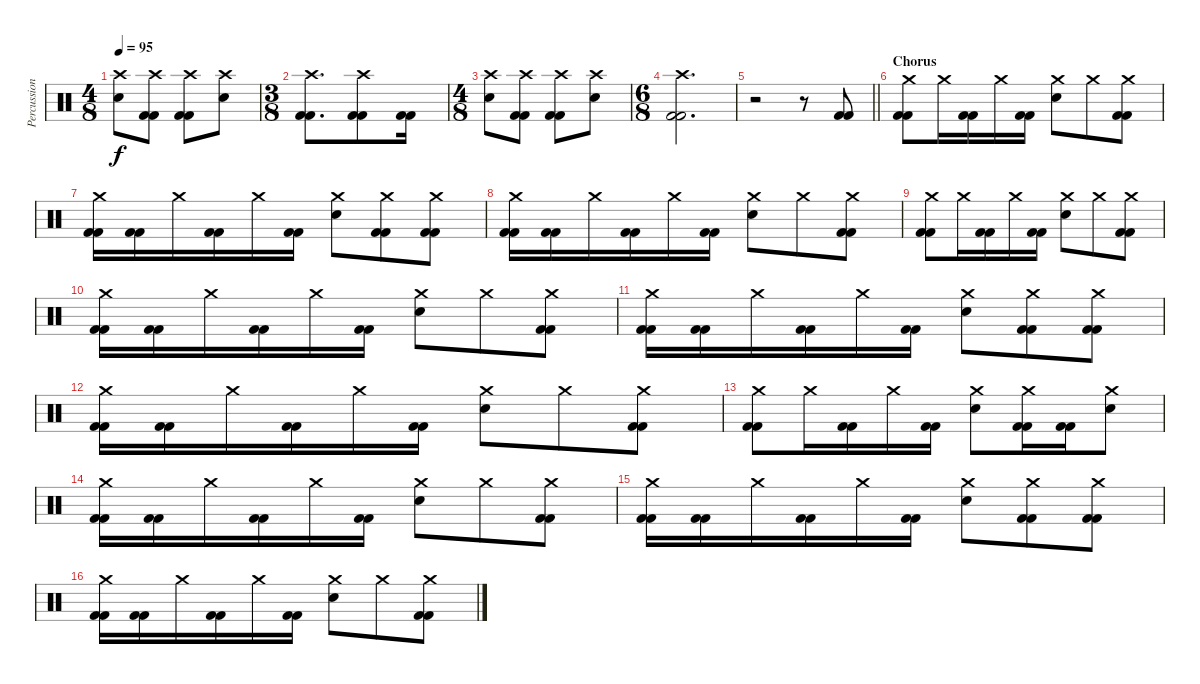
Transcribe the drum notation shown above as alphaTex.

\track ("Percussion" "Percussion") {instrument percussion}
\staff {score}
\articulation defaults
\ts (4 8)
\tempo 95
\clef neutral
\ks c
("Crash high (hit)" "Electric Snare (hit)").8{dy f} ("Crash high (hit)" "Kick (hit) 2" "Kick (hit) 2").8 ("Crash high (hit)" "Kick (hit) 2" "Kick (hit) 2").8 ("Crash high (hit)" "Electric Snare (hit)").8 |
\ts (3 8)
("Crash high (hit)" "Kick (hit) 2" "Kick (hit) 2").8{d} ("Crash high (hit)" "Kick (hit) 2" "Kick (hit) 2").8 ("Kick (hit) 2" "Kick (hit) 2").16 |
\ts (4 8)
("Crash high (hit)" "Electric Snare (hit)").8 ("Crash high (hit)" "Kick (hit) 2" "Kick (hit) 2").8 ("Crash high (hit)" "Kick (hit) 2" "Kick (hit) 2").8 ("Crash high (hit)" "Electric Snare (hit)").8 |
\ts (6 8)
("Crash high (hit)" "Kick (hit) 2" "Kick (hit) 2").2{d} |
\barLineRight lightlight
r.2 r.8 ("Kick (hit) 2" "Kick (hit) 2").8 |
\section ("" "Chorus")
("Crash medium (hit)" "Kick (hit) 2" "Kick (hit) 2").8 "Crash medium (hit)".16 ("Kick (hit) 2" "Kick (hit) 2").16 "Crash medium (hit)".16 ("Kick (hit) 2" "Kick (hit) 2").16 ("Crash medium (hit)" "Electric Snare (hit)").8 "Crash medium (hit)".8 ("Crash medium (hit)" "Kick (hit) 2" "Kick (hit) 2").8 |
("Crash medium (hit)" "Kick (hit) 2" "Kick (hit) 2").16 ("Kick (hit) 2" "Kick (hit) 2").16 "Crash medium (hit)".16 ("Kick (hit) 2" "Kick (hit) 2").16 "Crash medium (hit)".16 ("Kick (hit) 2" "Kick (hit) 2").16 ("Crash medium (hit)" "Electric Snare (hit)").8 ("Crash medium (hit)" "Kick (hit) 2" "Kick (hit) 2").8 ("Crash medium (hit)" "Kick (hit) 2" "Kick (hit) 2").8 |
("Crash medium (hit)" "Kick (hit) 2" "Kick (hit) 2").16 ("Kick (hit) 2" "Kick (hit) 2").16 "Crash medium (hit)".16 ("Kick (hit) 2" "Kick (hit) 2").16 "Crash medium (hit)".16 ("Kick (hit) 2" "Kick (hit) 2").16 ("Crash medium (hit)" "Electric Snare (hit)").8 "Crash medium (hit)".8 ("Crash medium (hit)" "Kick (hit) 2" "Kick (hit) 2").8 |
("Crash medium (hit)" "Kick (hit) 2" "Kick (hit) 2").8 "Crash medium (hit)".16 ("Kick (hit) 2" "Kick (hit) 2").16 "Crash medium (hit)".16 ("Kick (hit) 2" "Kick (hit) 2").16 ("Crash medium (hit)" "Electric Snare (hit)").8 "Crash medium (hit)".8 ("Crash medium (hit)" "Kick (hit) 2" "Kick (hit) 2").8 |
("Crash medium (hit)" "Kick (hit) 2" "Kick (hit) 2").16 ("Kick (hit) 2" "Kick (hit) 2").16 "Crash medium (hit)".16 ("Kick (hit) 2" "Kick (hit) 2").16 "Crash medium (hit)".16 ("Kick (hit) 2" "Kick (hit) 2").16 ("Crash medium (hit)" "Electric Snare (hit)").8 "Crash medium (hit)".8 ("Crash medium (hit)" "Kick (hit) 2" "Kick (hit) 2").8 |
("Crash medium (hit)" "Kick (hit) 2" "Kick (hit) 2").16 ("Kick (hit) 2" "Kick (hit) 2").16 "Crash medium (hit)".16 ("Kick (hit) 2" "Kick (hit) 2").16 "Crash medium (hit)".16 ("Kick (hit) 2" "Kick (hit) 2").16 ("Crash medium (hit)" "Electric Snare (hit)").8 ("Crash medium (hit)" "Kick (hit) 2" "Kick (hit) 2").8 ("Crash medium (hit)" "Kick (hit) 2" "Kick (hit) 2").8 |
("Crash medium (hit)" "Kick (hit) 2" "Kick (hit) 2").16 ("Kick (hit) 2" "Kick (hit) 2").16 "Crash medium (hit)".16 ("Kick (hit) 2" "Kick (hit) 2").16 "Crash medium (hit)".16 ("Kick (hit) 2" "Kick (hit) 2").16 ("Crash medium (hit)" "Electric Snare (hit)").8 "Crash medium (hit)".8 ("Crash medium (hit)" "Kick (hit) 2" "Kick (hit) 2").8 |
("Crash medium (hit)" "Kick (hit) 2" "Kick (hit) 2").8 "Crash medium (hit)".16 ("Kick (hit) 2" "Kick (hit) 2").16 "Crash medium (hit)".16 ("Kick (hit) 2" "Kick (hit) 2").16 ("Crash medium (hit)" "Electric Snare (hit)").8 ("Crash medium (hit)" "Kick (hit) 2" "Kick (hit) 2").16 ("Kick (hit) 2" "Kick (hit) 2").16 ("Crash medium (hit)" "Electric Snare (hit)").8 |
("Crash medium (hit)" "Kick (hit) 2" "Kick (hit) 2").16 ("Kick (hit) 2" "Kick (hit) 2").16 "Crash medium (hit)".16 ("Kick (hit) 2" "Kick (hit) 2").16 "Crash medium (hit)".16 ("Kick (hit) 2" "Kick (hit) 2").16 ("Crash medium (hit)" "Electric Snare (hit)").8 "Crash medium (hit)".8 ("Crash medium (hit)" "Kick (hit) 2" "Kick (hit) 2").8 |
("Crash medium (hit)" "Kick (hit) 2" "Kick (hit) 2").16 ("Kick (hit) 2" "Kick (hit) 2").16 "Crash medium (hit)".16 ("Kick (hit) 2" "Kick (hit) 2").16 "Crash medium (hit)".16 ("Kick (hit) 2" "Kick (hit) 2").16 ("Crash medium (hit)" "Electric Snare (hit)").8 ("Crash medium (hit)" "Kick (hit) 2" "Kick (hit) 2").8 ("Crash medium (hit)" "Kick (hit) 2" "Kick (hit) 2").8 |
("Crash medium (hit)" "Kick (hit) 2" "Kick (hit) 2").16 ("Kick (hit) 2" "Kick (hit) 2").16 "Crash medium (hit)".16 ("Kick (hit) 2" "Kick (hit) 2").16 "Crash medium (hit)".16 ("Kick (hit) 2" "Kick (hit) 2").16 ("Crash medium (hit)" "Electric Snare (hit)").8 "Crash medium (hit)".8 ("Crash medium (hit)" "Kick (hit) 2" "Kick (hit) 2").8
